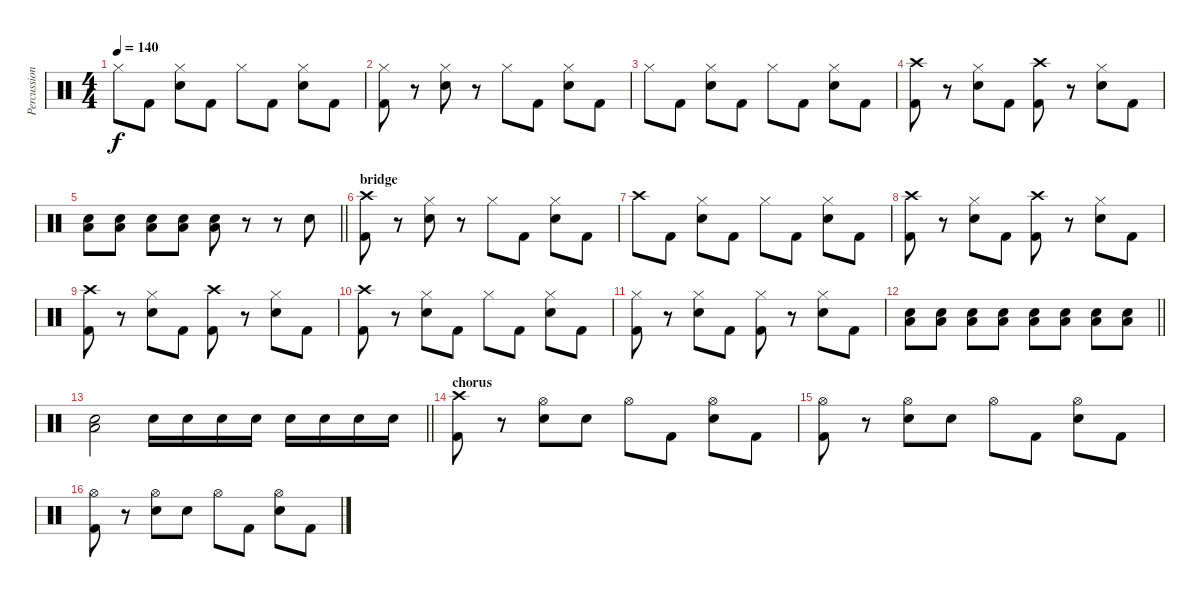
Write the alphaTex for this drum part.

\track ("Percussion" "Percussion") {instrument percussion}
\staff {score}
\articulation defaults
\ts (4 4)
\tempo 140
\clef neutral
\ks c "Hi-Hat (closed)".8{dy f} "Kick (hit) 2".8
("Hi-Hat (closed)" "Snare (hit) 2").8 "Kick (hit) 2".8 "Hi-Hat (closed)".8 "Kick (hit) 2".8 ("Hi-Hat (closed)" "Snare (hit) 2").8 "Kick (hit) 2".8 |
("Hi-Hat (closed)" "Kick (hit) 2").8 r.8 ("Hi-Hat (closed)" "Snare (hit) 2").8 r.8 "Hi-Hat (closed)".8 "Kick (hit) 2".8 ("Hi-Hat (closed)" "Snare (hit) 2").8 "Kick (hit) 2".8 |
"Hi-Hat (closed)".8 "Kick (hit) 2".8 ("Hi-Hat (closed)" "Snare (hit) 2").8 "Kick (hit) 2".8 "Hi-Hat (closed)".8 "Kick (hit) 2".8 ("Hi-Hat (closed)" "Snare (hit) 2").8 "Kick (hit) 2".8 |
("Crash high (hit)" "Kick (hit) 2").8 r.8 ("Hi-Hat (closed)" "Snare (hit) 2").8 "Kick (hit) 2".8 ("Crash high (hit)" "Kick (hit) 2").8 r.8 ("Hi-Hat (closed)" "Snare (hit) 2").8 "Kick (hit) 2".8 |
\barLineRight lightlight
("Low Floor Tom (hit)" "Snare (hit) 2").8 ("Low Floor Tom (hit)" "Snare (hit) 2").8 ("Low Floor Tom (hit)" "Snare (hit) 2").8 ("Low Floor Tom (hit)" "Snare (hit) 2").8 ("Low Floor Tom (hit)" "Snare (hit) 2").8 r.8 r.8 "Snare (hit) 2".8 |
\section ("" "bridge")
("Crash high (hit)" "Kick (hit) 2").8 r.8 ("Hi-Hat (closed)" "Snare (hit) 2").8 r.8 "Hi-Hat (closed)".8 "Kick (hit) 2".8 ("Hi-Hat (closed)" "Snare (hit) 2").8 "Kick (hit) 2".8 |
"Crash high (hit)".8 "Kick (hit) 2".8 ("Hi-Hat (closed)" "Snare (hit) 2").8 "Kick (hit) 2".8 "Hi-Hat (closed)".8 "Kick (hit) 2".8 ("Hi-Hat (closed)" "Snare (hit) 2").8 "Kick (hit) 2".8 |
("Crash high (hit)" "Kick (hit) 2").8 r.8 ("Hi-Hat (closed)" "Snare (hit) 2").8 "Kick (hit) 2".8 ("Crash high (hit)" "Kick (hit) 2").8 r.8 ("Hi-Hat (closed)" "Snare (hit) 2").8 "Kick (hit) 2".8 |
("Crash high (hit)" "Kick (hit) 2").8 r.8 ("Hi-Hat (closed)" "Snare (hit) 2").8 "Kick (hit) 2".8 ("Crash high (hit)" "Kick (hit) 2").8 r.8 ("Hi-Hat (closed)" "Snare (hit) 2").8 "Kick (hit) 2".8 |
("Crash high (hit)" "Kick (hit) 2").8 r.8 ("Hi-Hat (closed)" "Snare (hit) 2").8 "Kick (hit) 2".8 "Hi-Hat (closed)".8 "Kick (hit) 2".8 ("Hi-Hat (closed)" "Snare (hit) 2").8 "Kick (hit) 2".8 |
("Hi-Hat (closed)" "Kick (hit) 2").8 r.8 ("Hi-Hat (closed)" "Snare (hit) 2").8 "Kick (hit) 2".8 ("Hi-Hat (closed)" "Kick (hit) 2").8 r.8 ("Hi-Hat (closed)" "Snare (hit) 2").8 "Kick (hit) 2".8 |
\barLineRight lightlight
("Low Floor Tom (hit)" "Snare (hit) 2").8 ("Low Floor Tom (hit)" "Snare (hit) 2").8 ("Low Floor Tom (hit)" "Snare (hit) 2").8 ("Low Floor Tom (hit)" "Snare (hit) 2").8 ("Low Floor Tom (hit)" "Snare (hit) 2").8 ("Low Floor Tom (hit)" "Snare (hit) 2").8 ("Low Floor Tom (hit)" "Snare (hit) 2").8 ("Low Floor Tom (hit)" "Snare (hit) 2").8 |
\barLineRight lightlight
("Low Floor Tom (hit)" "Snare (hit) 2").2 "Snare (hit) 2".16 "Snare (hit) 2".16 "Snare (hit) 2".16 "Snare (hit) 2".16 "Snare (hit) 2".16 "Snare (hit) 2".16 "Snare (hit) 2".16 "Snare (hit) 2".16 |
\section ("" "chorus")
("Crash high (hit)" "Kick (hit) 2").8 r.8 ("Hi-Hat (open)" "Snare (hit) 2").8 "Snare (hit) 2".8 "Hi-Hat (open)".8 "Kick (hit) 2".8 ("Hi-Hat (open)" "Snare (hit) 2").8 "Kick (hit) 2".8 |
("Hi-Hat (open)" "Kick (hit) 2").8 r.8 ("Hi-Hat (open)" "Snare (hit) 2").8 "Snare (hit) 2".8 "Hi-Hat (open)".8 "Kick (hit) 2".8 ("Hi-Hat (open)" "Snare (hit) 2").8 "Kick (hit) 2".8 |
("Hi-Hat (open)" "Kick (hit) 2").8 r.8 ("Hi-Hat (open)" "Snare (hit) 2").8 "Snare (hit) 2".8 "Hi-Hat (open)".8 "Kick (hit) 2".8 ("Hi-Hat (open)" "Snare (hit) 2").8 "Kick (hit) 2".8
